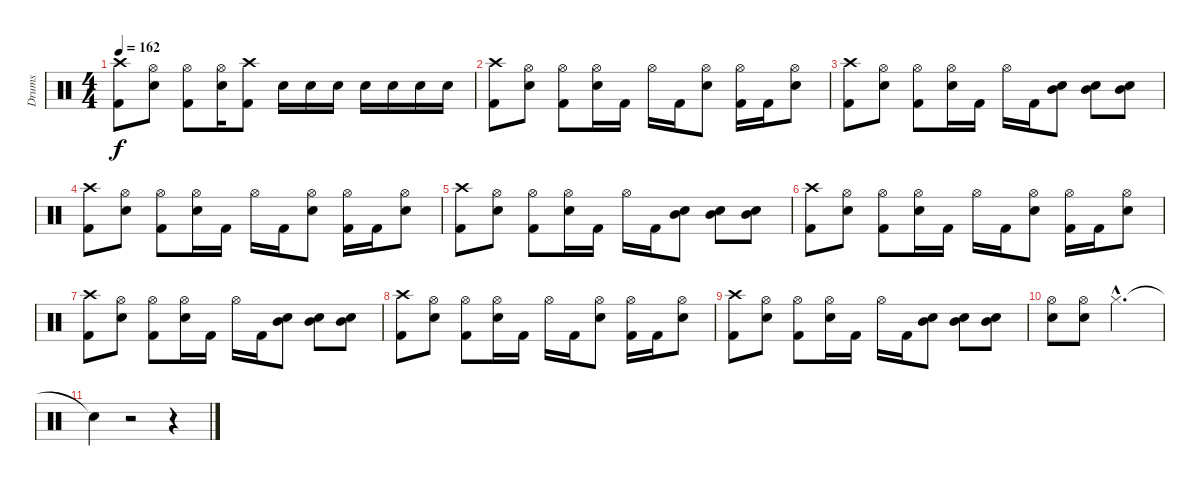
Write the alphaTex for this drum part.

\track ("Drums" "Drums") {instrument percussion}
\staff {score}
\articulation defaults
\ts (4 4)
\tempo 162
\clef neutral
\ks c
("Kick (hit) 2" "Crash high (hit)").8{dy f} ("Snare (hit) 2" "Hi-Hat (open)").8 ("Kick (hit) 2" "Hi-Hat (open)").8 ("Snare (hit) 2" "Hi-Hat (open)").16 ("Kick (hit) 2" "Crash high (hit)").8 "Snare (hit) 2".16 "Snare (hit) 2".16 "Snare (hit) 2".16 "Snare (hit) 2".16 "Snare (hit) 2".16 "Snare (hit) 2".16 "Snare (hit) 2".16 |
("Kick (hit) 2" "Crash high (hit)").8 ("Snare (hit) 2" "Hi-Hat (open)").8 ("Kick (hit) 2" "Hi-Hat (open)").8 ("Snare (hit) 2" "Hi-Hat (open)").16 "Kick (hit) 2".16 "Hi-Hat (open)".16 "Kick (hit) 2".16 ("Snare (hit) 2" "Hi-Hat (open)").8 ("Kick (hit) 2" "Hi-Hat (open)").16 "Kick (hit) 2".16 ("Snare (hit) 2" "Hi-Hat (open)").8 |
("Kick (hit) 2" "Crash high (hit)").8 ("Snare (hit) 2" "Hi-Hat (open)").8 ("Kick (hit) 2" "Hi-Hat (open)").8 ("Snare (hit) 2" "Hi-Hat (open)").16 "Kick (hit) 2".16 "Hi-Hat (open)".16 "Kick (hit) 2".16 ("Snare (hit) 2" "Mid Tom (hit)").8 ("Snare (hit) 2" "Mid Tom (hit)").8 ("Snare (hit) 2" "Mid Tom (hit)").8 |
("Kick (hit) 2" "Crash high (hit)").8 ("Snare (hit) 2" "Hi-Hat (open)").8 ("Kick (hit) 2" "Hi-Hat (open)").8 ("Snare (hit) 2" "Hi-Hat (open)").16 "Kick (hit) 2".16 "Hi-Hat (open)".16 "Kick (hit) 2".16 ("Snare (hit) 2" "Hi-Hat (open)").8 ("Kick (hit) 2" "Hi-Hat (open)").16 "Kick (hit) 2".16 ("Snare (hit) 2" "Hi-Hat (open)").8 |
("Kick (hit) 2" "Crash high (hit)").8 ("Snare (hit) 2" "Hi-Hat (open)").8 ("Kick (hit) 2" "Hi-Hat (open)").8 ("Snare (hit) 2" "Hi-Hat (open)").16 "Kick (hit) 2".16 "Hi-Hat (open)".16 "Kick (hit) 2".16 ("Snare (hit) 2" "Mid Tom (hit)").8 ("Snare (hit) 2" "Mid Tom (hit)").8 ("Snare (hit) 2" "Mid Tom (hit)").8 |
("Kick (hit) 2" "Crash high (hit)").8 ("Snare (hit) 2" "Hi-Hat (open)").8 ("Kick (hit) 2" "Hi-Hat (open)").8 ("Snare (hit) 2" "Hi-Hat (open)").16 "Kick (hit) 2".16 "Hi-Hat (open)".16 "Kick (hit) 2".16 ("Snare (hit) 2" "Hi-Hat (open)").8 ("Kick (hit) 2" "Hi-Hat (open)").16 "Kick (hit) 2".16 ("Snare (hit) 2" "Hi-Hat (open)").8 |
("Kick (hit) 2" "Crash high (hit)").8 ("Snare (hit) 2" "Hi-Hat (open)").8 ("Kick (hit) 2" "Hi-Hat (open)").8 ("Snare (hit) 2" "Hi-Hat (open)").16 "Kick (hit) 2".16 "Hi-Hat (open)".16 "Kick (hit) 2".16 ("Snare (hit) 2" "Mid Tom (hit)").8 ("Snare (hit) 2" "Mid Tom (hit)").8 ("Snare (hit) 2" "Mid Tom (hit)").8 |
("Kick (hit) 2" "Crash high (hit)").8 ("Snare (hit) 2" "Hi-Hat (open)").8 ("Kick (hit) 2" "Hi-Hat (open)").8 ("Snare (hit) 2" "Hi-Hat (open)").16 "Kick (hit) 2".16 "Hi-Hat (open)".16 "Kick (hit) 2".16 ("Snare (hit) 2" "Hi-Hat (open)").8 ("Kick (hit) 2" "Hi-Hat (open)").16 "Kick (hit) 2".16 ("Snare (hit) 2" "Hi-Hat (open)").8 |
("Kick (hit) 2" "Crash high (hit)").8 ("Snare (hit) 2" "Hi-Hat (open)").8 ("Kick (hit) 2" "Hi-Hat (open)").8 ("Snare (hit) 2" "Hi-Hat (open)").16 "Kick (hit) 2".16 "Hi-Hat (open)".16 "Kick (hit) 2".16 ("Snare (hit) 2" "Mid Tom (hit)").8 ("Snare (hit) 2" "Mid Tom (hit)").8 ("Snare (hit) 2" "Mid Tom (hit)").8 |
("Snare (hit) 2" "Hi-Hat (open)").8 ("Snare (hit) 2" "Hi-Hat (open)").8 "Hi-Hat (closed)"{hac}.2{d} |
"Snare (hit)"{t}.4 r.2 r.4
